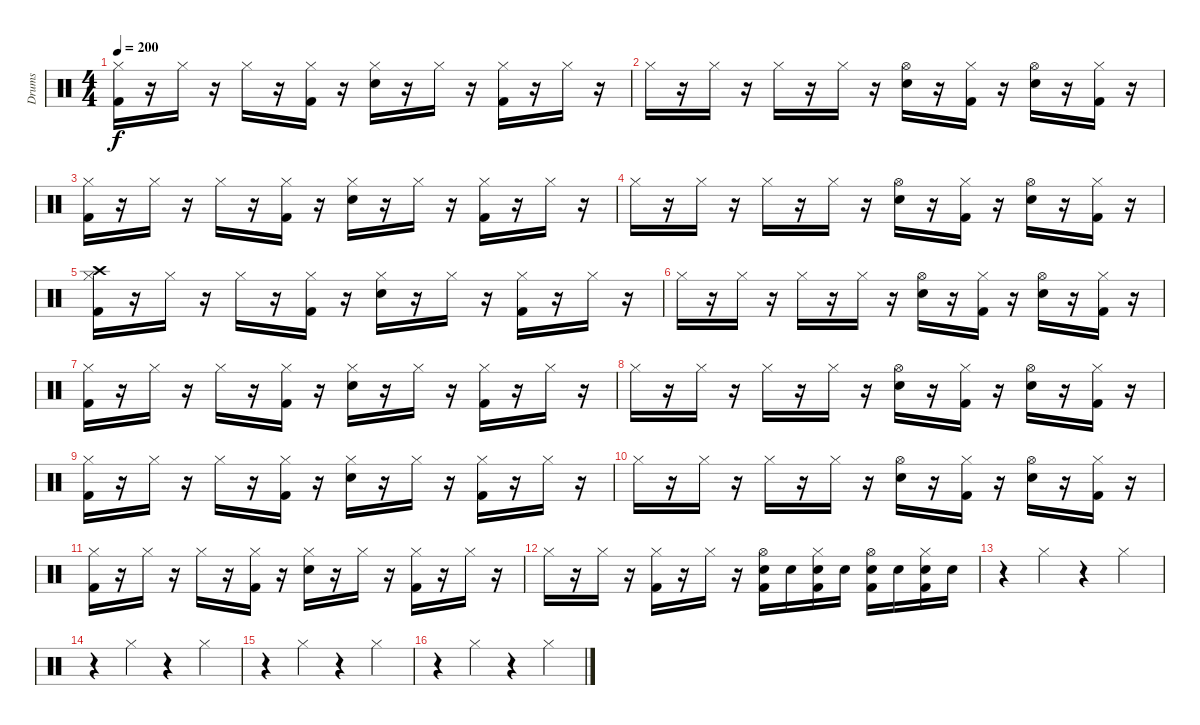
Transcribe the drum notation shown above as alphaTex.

\track ("Drums" "Drums") {instrument percussion}
\staff {score}
\articulation defaults
\ts (4 4)
\tempo 200
\clef neutral
\ks c
("Hi-Hat (closed)" "Kick (hit) 2").16{dy f} r.16 "Hi-Hat (closed)".16 r.16 "Hi-Hat (closed)".16 r.16 ("Hi-Hat (closed)" "Kick (hit) 2").16 r.16 ("Hi-Hat (closed)" "Electric Snare (hit)").16 r.16 "Hi-Hat (closed)".16 r.16 ("Hi-Hat (closed)" "Kick (hit) 2").16 r.16 "Hi-Hat (closed)".16 r.16 |
"Hi-Hat (closed)".16 r.16 "Hi-Hat (closed)".16 r.16 "Hi-Hat (closed)".16 r.16 "Hi-Hat (closed)".16 r.16 ("Hi-Hat (open)" "Electric Snare (hit)").16 r.16 ("Hi-Hat (closed)" "Kick (hit) 2").16 r.16 ("Hi-Hat (open)" "Electric Snare (hit)").16 r.16 ("Hi-Hat (closed)" "Kick (hit) 2").16 r.16 |
("Hi-Hat (closed)" "Kick (hit) 2").16 r.16 "Hi-Hat (closed)".16 r.16 "Hi-Hat (closed)".16 r.16 ("Hi-Hat (closed)" "Kick (hit) 2").16 r.16 ("Hi-Hat (closed)" "Electric Snare (hit)").16 r.16 "Hi-Hat (closed)".16 r.16 ("Hi-Hat (closed)" "Kick (hit) 2").16 r.16 "Hi-Hat (closed)".16 r.16 |
"Hi-Hat (closed)".16 r.16 "Hi-Hat (closed)".16 r.16 "Hi-Hat (closed)".16 r.16 "Hi-Hat (closed)".16 r.16 ("Hi-Hat (open)" "Electric Snare (hit)").16 r.16 ("Hi-Hat (closed)" "Kick (hit) 2").16 r.16 ("Hi-Hat (open)" "Electric Snare (hit)").16 r.16 ("Hi-Hat (closed)" "Kick (hit) 2").16 r.16 |
("Crash high (hit)" "Hi-Hat (closed)" "Kick (hit) 2").16 r.16 "Hi-Hat (closed)".16 r.16 "Hi-Hat (closed)".16 r.16 ("Hi-Hat (closed)" "Kick (hit) 2").16 r.16 ("Hi-Hat (closed)" "Electric Snare (hit)").16 r.16 "Hi-Hat (closed)".16 r.16 ("Hi-Hat (closed)" "Kick (hit) 2").16 r.16 "Hi-Hat (closed)".16 r.16 |
"Hi-Hat (closed)".16 r.16 "Hi-Hat (closed)".16 r.16 "Hi-Hat (closed)".16 r.16 "Hi-Hat (closed)".16 r.16 ("Hi-Hat (open)" "Electric Snare (hit)").16 r.16 ("Hi-Hat (closed)" "Kick (hit) 2").16 r.16 ("Hi-Hat (open)" "Electric Snare (hit)").16 r.16 ("Hi-Hat (closed)" "Kick (hit) 2").16 r.16 |
("Hi-Hat (closed)" "Kick (hit) 2").16 r.16 "Hi-Hat (closed)".16 r.16 "Hi-Hat (closed)".16 r.16 ("Hi-Hat (closed)" "Kick (hit) 2").16 r.16 ("Hi-Hat (closed)" "Electric Snare (hit)").16 r.16 "Hi-Hat (closed)".16 r.16 ("Hi-Hat (closed)" "Kick (hit) 2").16 r.16 "Hi-Hat (closed)".16 r.16 |
"Hi-Hat (closed)".16 r.16 "Hi-Hat (closed)".16 r.16 "Hi-Hat (closed)".16 r.16 "Hi-Hat (closed)".16 r.16 ("Hi-Hat (open)" "Electric Snare (hit)").16 r.16 ("Hi-Hat (closed)" "Kick (hit) 2").16 r.16 ("Hi-Hat (open)" "Electric Snare (hit)").16 r.16 ("Hi-Hat (closed)" "Kick (hit) 2").16 r.16 |
("Hi-Hat (closed)" "Kick (hit) 2").16 r.16 "Hi-Hat (closed)".16 r.16 "Hi-Hat (closed)".16 r.16 ("Hi-Hat (closed)" "Kick (hit) 2").16 r.16 ("Hi-Hat (closed)" "Electric Snare (hit)").16 r.16 "Hi-Hat (closed)".16 r.16 ("Hi-Hat (closed)" "Kick (hit) 2").16 r.16 "Hi-Hat (closed)".16 r.16 |
"Hi-Hat (closed)".16 r.16 "Hi-Hat (closed)".16 r.16 "Hi-Hat (closed)".16 r.16 "Hi-Hat (closed)".16 r.16 ("Hi-Hat (open)" "Electric Snare (hit)").16 r.16 ("Hi-Hat (closed)" "Kick (hit) 2").16 r.16 ("Hi-Hat (open)" "Electric Snare (hit)").16 r.16 ("Hi-Hat (closed)" "Kick (hit) 2").16 r.16 |
("Hi-Hat (closed)" "Kick (hit) 2").16 r.16 "Hi-Hat (closed)".16 r.16 "Hi-Hat (closed)".16 r.16 ("Hi-Hat (closed)" "Kick (hit) 2").16 r.16 ("Hi-Hat (closed)" "Electric Snare (hit)").16 r.16 "Hi-Hat (closed)".16 r.16 ("Hi-Hat (closed)" "Kick (hit) 2").16 r.16 "Hi-Hat (closed)".16 r.16 |
"Hi-Hat (closed)".16 r.16 "Hi-Hat (closed)".16 r.16 ("Hi-Hat (closed)" "Kick (hit) 2").16 r.16 "Hi-Hat (closed)".16 r.16 ("Hi-Hat (open)" "Electric Snare (hit)" "Kick (hit) 2").16 "Electric Snare (hit)".16 ("Hi-Hat (closed)" "Electric Snare (hit)" "Kick (hit) 2").16 "Electric Snare (hit)".16 ("Hi-Hat (open)" "Electric Snare (hit)" "Kick (hit) 2").16 "Electric Snare (hit)".16 ("Hi-Hat (closed)" "Electric Snare (hit)" "Kick (hit) 2").16 "Electric Snare (hit)".16 |
r.4 "Hi-Hat (closed)".4 r.4 "Hi-Hat (closed)".4 |
r.4 "Hi-Hat (closed)".4 r.4 "Hi-Hat (closed)".4 |
r.4 "Hi-Hat (closed)".4 r.4 "Hi-Hat (closed)".4 |
r.4 "Hi-Hat (closed)".4 r.4 "Hi-Hat (closed)".4
